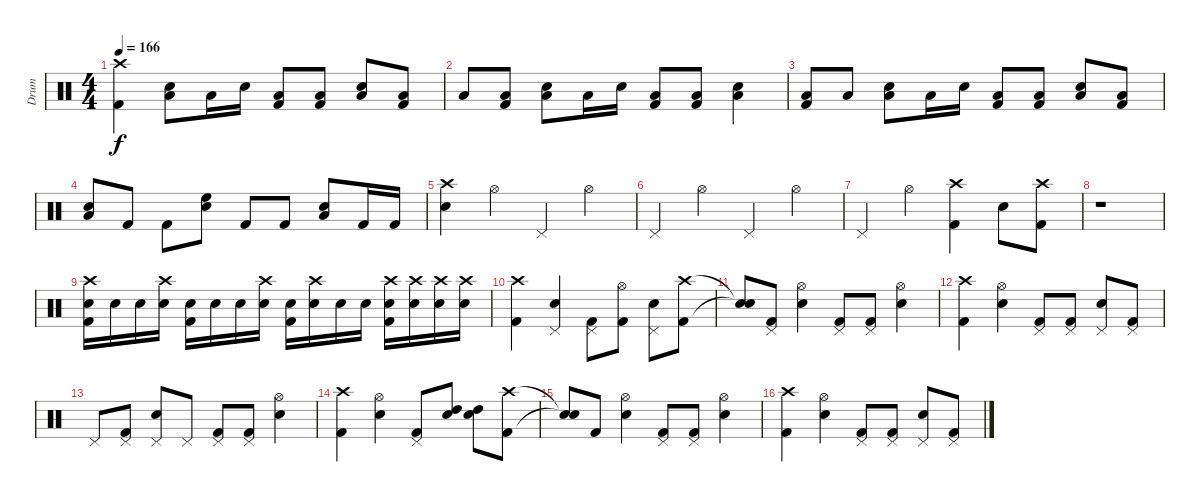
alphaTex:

\track ("Drum" "Drum") {instrument percussion}
\staff {score}
\articulation defaults
\ts (4 4)
\tempo 166
\clef neutral
\ks c
("Crash high (hit)" "Kick (hit) 2").4{dy f} ("Low Tom (hit)" "Electric Snare (hit)").8 "Low Tom (hit)".16 "Electric Snare (hit)".16 ("Low Tom (hit)" "Kick (hit) 2").8 ("Low Tom (hit)" "Kick (hit) 2").8 ("Low Tom (hit)" "Electric Snare (hit)").8 ("Low Tom (hit)" "Kick (hit) 2").8 |
"Low Tom (hit)".8 ("Low Tom (hit)" "Kick (hit) 2").8 ("Low Tom (hit)" "Electric Snare (hit)").8 "Low Tom (hit)".16 "Electric Snare (hit)".16 ("Low Tom (hit)" "Kick (hit) 2").8 ("Low Tom (hit)" "Kick (hit) 2").8 ("Low Tom (hit)" "Electric Snare (hit)").4 |
("Low Tom (hit)" "Kick (hit) 2").8 "Low Tom (hit)".8 ("Low Tom (hit)" "Electric Snare (hit)").8 "Low Tom (hit)".16 "Electric Snare (hit)".16 ("Low Tom (hit)" "Kick (hit) 2").8 ("Low Tom (hit)" "Kick (hit) 2").8 ("Low Tom (hit)" "Electric Snare (hit)").8 ("Low Tom (hit)" "Kick (hit) 2").8 |
("Low Tom (hit)" "Electric Snare (hit)").8 "Kick (hit) 2".8 "Kick (hit) 2".8 ("High Floor Tom (hit)" "Electric Snare (hit)").8 "Kick (hit) 2".8 "Kick (hit) 2".8 ("Low Tom (hit)" "Electric Snare (hit)").8 "Kick (hit) 2".16 "Kick (hit) 2".16 |
("Crash high (hit)" "Electric Snare (hit)").4 "Hi-Hat (open)".4 "Pedal Hi-Hat (hit)".4 "Hi-Hat (open)".4 |
"Pedal Hi-Hat (hit)".4 "Hi-Hat (open)".4 "Pedal Hi-Hat (hit)".4 "Hi-Hat (open)".4 |
"Pedal Hi-Hat (hit)".4 "Hi-Hat (open)".4 ("Crash high (hit)" "Kick (hit) 2").4 "Electric Snare (hit)".8 ("Crash high (hit)" "Kick (hit) 2").8 |
r.1 |
("Crash high (hit)" "Electric Snare (hit)" "Kick (hit) 2").16 "Electric Snare (hit)".16 "Electric Snare (hit)".16 ("Crash high (hit)" "Electric Snare (hit)").16 ("Electric Snare (hit)" "Kick (hit) 2").16 "Electric Snare (hit)".16 "Electric Snare (hit)".16 ("Crash high (hit)" "Electric Snare (hit)").16 ("Electric Snare (hit)" "Kick (hit) 2").16 ("Crash high (hit)" "Electric Snare (hit)").16 "Electric Snare (hit)".16 "Electric Snare (hit)".16 ("Crash high (hit)" "Electric Snare (hit)" "Kick (hit) 2").16 ("Crash high (hit)" "Electric Snare (hit)").16 ("Crash high (hit)" "Electric Snare (hit)").16 ("Crash high (hit)" "Electric Snare (hit)").16 |
("Crash high (hit)" "Kick (hit) 2").4 ("Pedal Hi-Hat (hit)" "Electric Snare (hit)").4 ("Pedal Hi-Hat (hit)" "Kick (hit) 2").8 ("Hi-Hat (open)" "Kick (hit) 2").8 ("Pedal Hi-Hat (hit)" "Electric Snare (hit)").8 ("Crash high (hit)" "Kick (hit) 2").8 |
("Snare (hit)"{t} "Snare (hit)"{t}).8 ("Pedal Hi-Hat (hit)" "Kick (hit) 2").8 ("Hi-Hat (open)" "Electric Snare (hit)").4 ("Pedal Hi-Hat (hit)" "Kick (hit) 2").8 ("Pedal Hi-Hat (hit)" "Kick (hit) 2").8 ("Hi-Hat (open)" "Electric Snare (hit)").4 |
("Crash high (hit)" "Kick (hit) 2").4 ("Hi-Hat (open)" "Electric Snare (hit)").4 ("Pedal Hi-Hat (hit)" "Kick (hit) 2").8 ("Pedal Hi-Hat (hit)" "Kick (hit) 2").8 ("Pedal Hi-Hat (hit)" "Electric Snare (hit)").8 ("Pedal Hi-Hat (hit)" "Kick (hit) 2").8 |
"Pedal Hi-Hat (hit)".8 ("Pedal Hi-Hat (hit)" "Kick (hit) 2").8 ("Pedal Hi-Hat (hit)" "Electric Snare (hit)").8 "Pedal Hi-Hat (hit)".8 ("Pedal Hi-Hat (hit)" "Kick (hit) 2").8 ("Pedal Hi-Hat (hit)" "Kick (hit) 2").8 ("Hi-Hat (open)" "Electric Snare (hit)").4 |
("Crash high (hit)" "Kick (hit) 2").4 ("Hi-Hat (open)" "Electric Snare (hit)").4 ("Pedal Hi-Hat (hit)" "Kick (hit) 2").8 ("High Tom (hit)" "Electric Snare (hit)").8 ("High Tom (hit)" "Electric Snare (hit)").8 ("Crash high (hit)" "Kick (hit) 2").8 |
("Snare (hit)"{t} "Snare (hit)"{t}).8 "Kick (hit) 2".8 ("Hi-Hat (open)" "Electric Snare (hit)").4 ("Pedal Hi-Hat (hit)" "Kick (hit) 2").8 ("Pedal Hi-Hat (hit)" "Kick (hit) 2").8 ("Hi-Hat (open)" "Electric Snare (hit)").4 |
("Crash high (hit)" "Kick (hit) 2").4 ("Hi-Hat (open)" "Electric Snare (hit)").4 ("Pedal Hi-Hat (hit)" "Kick (hit) 2").8 ("Pedal Hi-Hat (hit)" "Kick (hit) 2").8 ("Pedal Hi-Hat (hit)" "Electric Snare (hit)").8 ("Pedal Hi-Hat (hit)" "Kick (hit) 2").8
